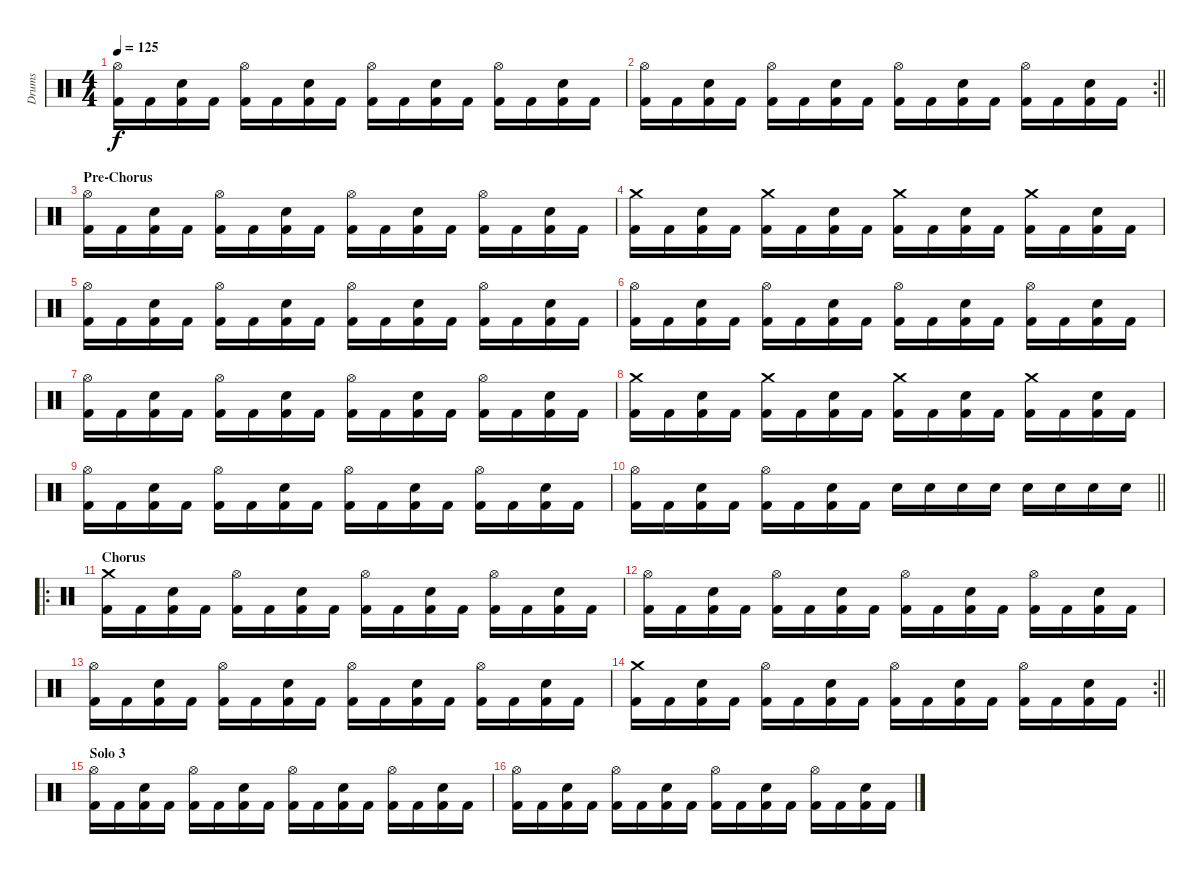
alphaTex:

\track ("Drums" "Drums") {instrument percussion}
\staff {score}
\articulation defaults
\ts (4 4)
\tempo 125
\clef neutral
\ks c
("Hi-Hat (open)" "Kick (hit) 2").16{dy f} "Kick (hit) 2".16 ("Snare (hit) 2" "Kick (hit) 2").16 "Kick (hit) 2".16 ("Hi-Hat (open)" "Kick (hit) 2").16 "Kick (hit) 2".16 ("Snare (hit) 2" "Kick (hit) 2").16 "Kick (hit) 2".16 ("Hi-Hat (open)" "Kick (hit) 2").16 "Kick (hit) 2".16 ("Snare (hit) 2" "Kick (hit) 2").16 "Kick (hit) 2".16 ("Hi-Hat (open)" "Kick (hit) 2").16 "Kick (hit) 2".16 ("Snare (hit) 2" "Kick (hit) 2").16 "Kick (hit) 2".16 |
\rc 2
\barLineRight lightlight
("Hi-Hat (open)" "Kick (hit) 2").16 "Kick (hit) 2".16 ("Snare (hit) 2" "Kick (hit) 2").16 "Kick (hit) 2".16 ("Hi-Hat (open)" "Kick (hit) 2").16 "Kick (hit) 2".16 ("Snare (hit) 2" "Kick (hit) 2").16 "Kick (hit) 2".16 ("Hi-Hat (open)" "Kick (hit) 2").16 "Kick (hit) 2".16 ("Snare (hit) 2" "Kick (hit) 2").16 "Kick (hit) 2".16 ("Hi-Hat (open)" "Kick (hit) 2").16 "Kick (hit) 2".16 ("Snare (hit) 2" "Kick (hit) 2").16 "Kick (hit) 2".16 |
\section ("" "Pre-Chorus")
("Hi-Hat (open)" "Kick (hit) 2").16 "Kick (hit) 2".16 ("Snare (hit) 2" "Kick (hit) 2").16 "Kick (hit) 2".16 ("Hi-Hat (open)" "Kick (hit) 2").16 "Kick (hit) 2".16 ("Snare (hit) 2" "Kick (hit) 2").16 "Kick (hit) 2".16 ("Hi-Hat (open)" "Kick (hit) 2").16 "Kick (hit) 2".16 ("Snare (hit) 2" "Kick (hit) 2").16 "Kick (hit) 2".16 ("Hi-Hat (open)" "Kick (hit) 2").16 "Kick (hit) 2".16 ("Snare (hit) 2" "Kick (hit) 2").16 "Kick (hit) 2".16 |
("Crash medium (hit)" "Kick (hit) 2").16 "Kick (hit) 2".16 ("Snare (hit) 2" "Kick (hit) 2").16 "Kick (hit) 2".16 ("Crash medium (hit)" "Kick (hit) 2").16 "Kick (hit) 2".16 ("Snare (hit) 2" "Kick (hit) 2").16 "Kick (hit) 2".16 ("Crash medium (hit)" "Kick (hit) 2").16 "Kick (hit) 2".16 ("Snare (hit) 2" "Kick (hit) 2").16 "Kick (hit) 2".16 ("Crash medium (hit)" "Kick (hit) 2").16 "Kick (hit) 2".16 ("Snare (hit) 2" "Kick (hit) 2").16 "Kick (hit) 2".16 |
("Hi-Hat (open)" "Kick (hit) 2").16 "Kick (hit) 2".16 ("Snare (hit) 2" "Kick (hit) 2").16 "Kick (hit) 2".16 ("Hi-Hat (open)" "Kick (hit) 2").16 "Kick (hit) 2".16 ("Snare (hit) 2" "Kick (hit) 2").16 "Kick (hit) 2".16 ("Hi-Hat (open)" "Kick (hit) 2").16 "Kick (hit) 2".16 ("Snare (hit) 2" "Kick (hit) 2").16 "Kick (hit) 2".16 ("Hi-Hat (open)" "Kick (hit) 2").16 "Kick (hit) 2".16 ("Snare (hit) 2" "Kick (hit) 2").16 "Kick (hit) 2".16 |
("Hi-Hat (open)" "Kick (hit) 2").16 "Kick (hit) 2".16 ("Snare (hit) 2" "Kick (hit) 2").16 "Kick (hit) 2".16 ("Hi-Hat (open)" "Kick (hit) 2").16 "Kick (hit) 2".16 ("Snare (hit) 2" "Kick (hit) 2").16 "Kick (hit) 2".16 ("Hi-Hat (open)" "Kick (hit) 2").16 "Kick (hit) 2".16 ("Snare (hit) 2" "Kick (hit) 2").16 "Kick (hit) 2".16 ("Hi-Hat (open)" "Kick (hit) 2").16 "Kick (hit) 2".16 ("Snare (hit) 2" "Kick (hit) 2").16 "Kick (hit) 2".16 |
("Hi-Hat (open)" "Kick (hit) 2").16 "Kick (hit) 2".16 ("Snare (hit) 2" "Kick (hit) 2").16 "Kick (hit) 2".16 ("Hi-Hat (open)" "Kick (hit) 2").16 "Kick (hit) 2".16 ("Snare (hit) 2" "Kick (hit) 2").16 "Kick (hit) 2".16 ("Hi-Hat (open)" "Kick (hit) 2").16 "Kick (hit) 2".16 ("Snare (hit) 2" "Kick (hit) 2").16 "Kick (hit) 2".16 ("Hi-Hat (open)" "Kick (hit) 2").16 "Kick (hit) 2".16 ("Snare (hit) 2" "Kick (hit) 2").16 "Kick (hit) 2".16 |
("Crash medium (hit)" "Kick (hit) 2").16 "Kick (hit) 2".16 ("Snare (hit) 2" "Kick (hit) 2").16 "Kick (hit) 2".16 ("Crash medium (hit)" "Kick (hit) 2").16 "Kick (hit) 2".16 ("Snare (hit) 2" "Kick (hit) 2").16 "Kick (hit) 2".16 ("Crash medium (hit)" "Kick (hit) 2").16 "Kick (hit) 2".16 ("Snare (hit) 2" "Kick (hit) 2").16 "Kick (hit) 2".16 ("Crash medium (hit)" "Kick (hit) 2").16 "Kick (hit) 2".16 ("Snare (hit) 2" "Kick (hit) 2").16 "Kick (hit) 2".16 |
("Hi-Hat (open)" "Kick (hit) 2").16 "Kick (hit) 2".16 ("Snare (hit) 2" "Kick (hit) 2").16 "Kick (hit) 2".16 ("Hi-Hat (open)" "Kick (hit) 2").16 "Kick (hit) 2".16 ("Snare (hit) 2" "Kick (hit) 2").16 "Kick (hit) 2".16 ("Hi-Hat (open)" "Kick (hit) 2").16 "Kick (hit) 2".16 ("Snare (hit) 2" "Kick (hit) 2").16 "Kick (hit) 2".16 ("Hi-Hat (open)" "Kick (hit) 2").16 "Kick (hit) 2".16 ("Snare (hit) 2" "Kick (hit) 2").16 "Kick (hit) 2".16 |
\barLineRight lightlight
("Hi-Hat (open)" "Kick (hit) 2").16 "Kick (hit) 2".16 ("Snare (hit) 2" "Kick (hit) 2").16 "Kick (hit) 2".16 ("Hi-Hat (open)" "Kick (hit) 2").16 "Kick (hit) 2".16 ("Snare (hit) 2" "Kick (hit) 2").16 "Kick (hit) 2".16 "Snare (hit) 2".16 "Snare (hit) 2".16 "Snare (hit) 2".16 "Snare (hit) 2".16 "Snare (hit) 2".16 "Snare (hit) 2".16 "Snare (hit) 2".16 "Snare (hit) 2".16 |
\ro
\section ("" "Chorus")
("Crash medium (hit)" "Kick (hit) 2").16 "Kick (hit) 2".16 ("Snare (hit) 2" "Kick (hit) 2").16 "Kick (hit) 2".16 ("Hi-Hat (open)" "Kick (hit) 2").16 "Kick (hit) 2".16 ("Snare (hit) 2" "Kick (hit) 2").16 "Kick (hit) 2".16 ("Hi-Hat (open)" "Kick (hit) 2").16 "Kick (hit) 2".16 ("Snare (hit) 2" "Kick (hit) 2").16 "Kick (hit) 2".16 ("Hi-Hat (open)" "Kick (hit) 2").16 "Kick (hit) 2".16 ("Snare (hit) 2" "Kick (hit) 2").16 "Kick (hit) 2".16 |
("Hi-Hat (open)" "Kick (hit) 2").16 "Kick (hit) 2".16 ("Snare (hit) 2" "Kick (hit) 2").16 "Kick (hit) 2".16 ("Hi-Hat (open)" "Kick (hit) 2").16 "Kick (hit) 2".16 ("Snare (hit) 2" "Kick (hit) 2").16 "Kick (hit) 2".16 ("Hi-Hat (open)" "Kick (hit) 2").16 "Kick (hit) 2".16 ("Snare (hit) 2" "Kick (hit) 2").16 "Kick (hit) 2".16 ("Hi-Hat (open)" "Kick (hit) 2").16 "Kick (hit) 2".16 ("Snare (hit) 2" "Kick (hit) 2").16 "Kick (hit) 2".16 |
("Hi-Hat (open)" "Kick (hit) 2").16 "Kick (hit) 2".16 ("Snare (hit) 2" "Kick (hit) 2").16 "Kick (hit) 2".16 ("Hi-Hat (open)" "Kick (hit) 2").16 "Kick (hit) 2".16 ("Snare (hit) 2" "Kick (hit) 2").16 "Kick (hit) 2".16 ("Hi-Hat (open)" "Kick (hit) 2").16 "Kick (hit) 2".16 ("Snare (hit) 2" "Kick (hit) 2").16 "Kick (hit) 2".16 ("Hi-Hat (open)" "Kick (hit) 2").16 "Kick (hit) 2".16 ("Snare (hit) 2" "Kick (hit) 2").16 "Kick (hit) 2".16 |
\rc 2
\barLineRight lightlight
("Crash medium (hit)" "Kick (hit) 2").16 "Kick (hit) 2".16 ("Snare (hit) 2" "Kick (hit) 2").16 "Kick (hit) 2".16 ("Hi-Hat (open)" "Kick (hit) 2").16 "Kick (hit) 2".16 ("Snare (hit) 2" "Kick (hit) 2").16 "Kick (hit) 2".16 ("Hi-Hat (open)" "Kick (hit) 2").16 "Kick (hit) 2".16 ("Snare (hit) 2" "Kick (hit) 2").16 "Kick (hit) 2".16 ("Hi-Hat (open)" "Kick (hit) 2").16 "Kick (hit) 2".16 ("Snare (hit) 2" "Kick (hit) 2").16 "Kick (hit) 2".16 |
\section ("" "Solo 3")
("Hi-Hat (open)" "Kick (hit) 2").16 "Kick (hit) 2".16 ("Snare (hit) 2" "Kick (hit) 2").16 "Kick (hit) 2".16 ("Hi-Hat (open)" "Kick (hit) 2").16 "Kick (hit) 2".16 ("Snare (hit) 2" "Kick (hit) 2").16 "Kick (hit) 2".16 ("Hi-Hat (open)" "Kick (hit) 2").16 "Kick (hit) 2".16 ("Snare (hit) 2" "Kick (hit) 2").16 "Kick (hit) 2".16 ("Hi-Hat (open)" "Kick (hit) 2").16 "Kick (hit) 2".16 ("Snare (hit) 2" "Kick (hit) 2").16 "Kick (hit) 2".16 |
("Hi-Hat (open)" "Kick (hit) 2").16 "Kick (hit) 2".16 ("Snare (hit) 2" "Kick (hit) 2").16 "Kick (hit) 2".16 ("Hi-Hat (open)" "Kick (hit) 2").16 "Kick (hit) 2".16 ("Snare (hit) 2" "Kick (hit) 2").16 "Kick (hit) 2".16 ("Hi-Hat (open)" "Kick (hit) 2").16 "Kick (hit) 2".16 ("Snare (hit) 2" "Kick (hit) 2").16 "Kick (hit) 2".16 ("Hi-Hat (open)" "Kick (hit) 2").16 "Kick (hit) 2".16 ("Snare (hit) 2" "Kick (hit) 2").16 "Kick (hit) 2".16
